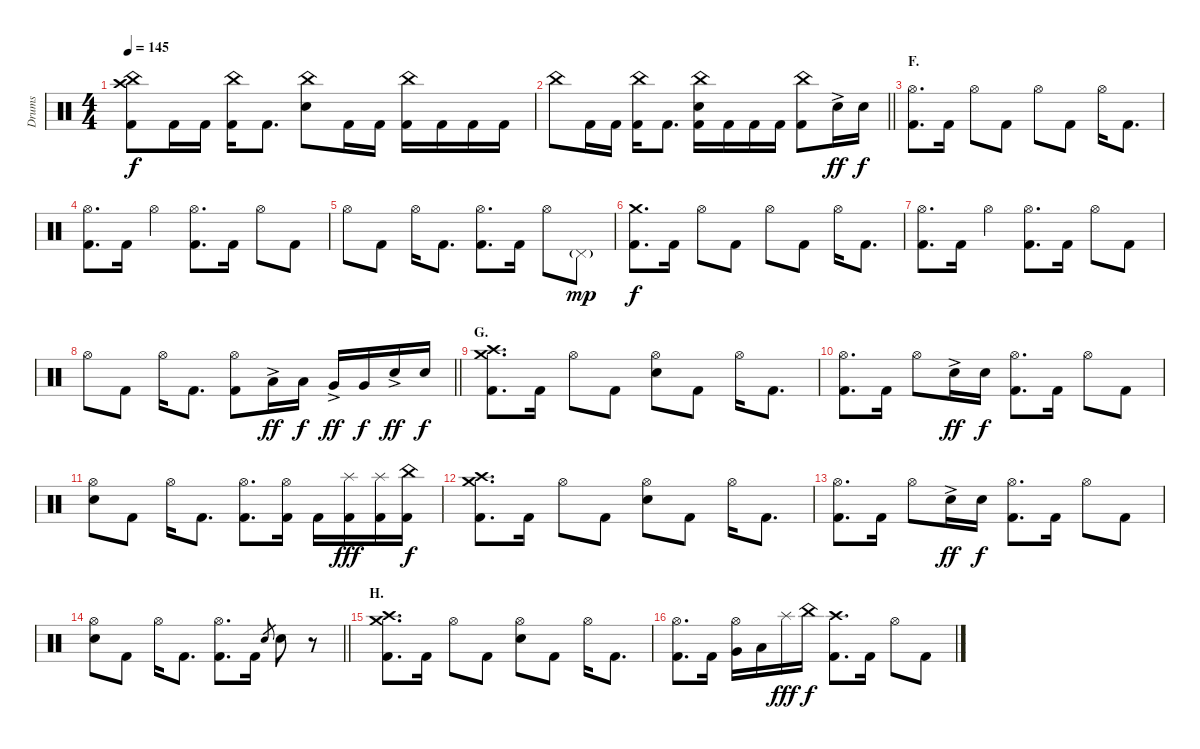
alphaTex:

\track ("Drums" "Drums") {instrument percussion}
\staff {score}
\articulation defaults
\ts (4 4)
\tempo 145
\clef neutral
\ks c
("China (hit)" "Crash high (hit)" "Kick (hit) 2").8{dy f} "Kick (hit) 2".16 "Kick (hit) 2".16 ("China (hit)" "Kick (hit) 2").16 "Kick (hit) 2".8{d} ("China (hit)" "Electric Snare (hit)").8 "Kick (hit) 2".16 "Kick (hit) 2".16 ("China (hit)" "Kick (hit) 2").16 "Kick (hit) 2".16 "Kick (hit) 2".16 "Kick (hit) 2".16 |
\barLineRight lightlight "China (hit)".8 "Kick (hit) 2".16 "Kick (hit) 2".16
("China (hit)" "Kick (hit) 2").16 "Kick (hit) 2".8{d} ("China (hit)" "Electric Snare (hit)" "Kick (hit) 2").16 "Kick (hit) 2".16 "Kick (hit) 2".16 "Kick (hit) 2".16 ("China (hit)" "Kick (hit) 2").8 "Electric Snare (hit)"{ac}.16{dy ff} "Electric Snare (hit)".16{dy f} |
\section ("" "F.")
("Hi-Hat (open)" "Kick (hit) 2").8{d} "Kick (hit) 2".16 "Hi-Hat (open)".8 "Kick (hit) 2".8 "Hi-Hat (open)".8 "Kick (hit) 2".8 "Hi-Hat (open)".16 "Kick (hit) 2".8{d} |
("Hi-Hat (open)" "Kick (hit) 2").8{d} "Kick (hit) 2".16 "Hi-Hat (open)".4 ("Hi-Hat (open)" "Kick (hit) 2").8{d} "Kick (hit) 2".16 "Hi-Hat (open)".8 "Kick (hit) 2".8 |
"Hi-Hat (open)".8 "Kick (hit) 2".8 "Hi-Hat (open)".16 "Kick (hit) 2".8{d} ("Hi-Hat (open)" "Kick (hit) 2").8{d} "Kick (hit) 2".16 "Hi-Hat (open)".8 "Pedal Hi-Hat (hit)"{g}.8{dy mp} |
("Crash medium (hit)" "Kick (hit) 2").8{d dy f} "Kick (hit) 2".16 "Hi-Hat (open)".8 "Kick (hit) 2".8 "Hi-Hat (open)".8 "Kick (hit) 2".8 "Hi-Hat (open)".16 "Kick (hit) 2".8{d} |
("Hi-Hat (open)" "Kick (hit) 2").8{d} "Kick (hit) 2".16 "Hi-Hat (open)".4 ("Hi-Hat (open)" "Kick (hit) 2").8{d} "Kick (hit) 2".16 "Hi-Hat (open)".8 "Kick (hit) 2".8 |
\barLineRight lightlight "Hi-Hat (open)".8 "Kick (hit) 2".8 "Hi-Hat (open)".16 "Kick (hit) 2".8{d}
("Hi-Hat (open)" "Kick (hit) 2").8 "Low Tom (hit)"{ac}.16{dy ff} "Low Tom (hit)".16{dy f} "Very Low Tom (hit)"{ac}.16{dy ff} "Very Low Tom (hit)".16{dy f} "Electric Snare (hit)"{ac}.16{dy ff} "Electric Snare (hit)".16{dy f} |
\section ("" "G.")
("Crash medium (hit)" "Crash high (hit)" "Kick (hit) 2").8{d} "Kick (hit) 2".16 "Hi-Hat (open)".8 "Kick (hit) 2".8 ("Hi-Hat (open)" "Electric Snare (hit)").8 "Kick (hit) 2".8 "Hi-Hat (open)".16 "Kick (hit) 2".8{d} |
("Hi-Hat (open)" "Kick (hit) 2").8{d} "Kick (hit) 2".16 "Hi-Hat (open)".8 "Electric Snare (hit)"{ac}.16{dy ff} "Electric Snare (hit)".16{dy f} ("Hi-Hat (open)" "Kick (hit) 2").8{d} "Kick (hit) 2".16 "Hi-Hat (open)".8 "Kick (hit) 2".8 |
("Hi-Hat (open)" "Electric Snare (hit)").8 "Kick (hit) 2".8 "Hi-Hat (open)".16 "Kick (hit) 2".8{d} ("Hi-Hat (open)" "Kick (hit) 2").8{d} ("Hi-Hat (open)" "Kick (hit) 2").16 "Kick (hit) 2".16 ("Splash (hit)" "Kick (hit) 2").16{dy fff} ("Splash (hit)" "Kick (hit) 2").16 ("China (hit)" "Kick (hit) 2").16{dy f} |
("Crash medium (hit)" "Crash high (hit)" "Kick (hit) 2").8{d} "Kick (hit) 2".16 "Hi-Hat (open)".8 "Kick (hit) 2".8 ("Hi-Hat (open)" "Electric Snare (hit)").8 "Kick (hit) 2".8 "Hi-Hat (open)".16 "Kick (hit) 2".8{d} |
("Hi-Hat (open)" "Kick (hit) 2").8{d} "Kick (hit) 2".16 "Hi-Hat (open)".8 "Electric Snare (hit)"{ac}.16{dy ff} "Electric Snare (hit)".16{dy f} ("Hi-Hat (open)" "Kick (hit) 2").8{d} "Kick (hit) 2".16 "Hi-Hat (open)".8 "Kick (hit) 2".8 |
\barLineRight lightlight
("Hi-Hat (open)" "Electric Snare (hit)").8 "Kick (hit) 2".8 "Hi-Hat (open)".16 "Kick (hit) 2".8{d} ("Hi-Hat (open)" "Kick (hit) 2").8{d} "Kick (hit) 2".16 "Electric Snare (hit)".8{gr} "Electric Snare (hit)".8 r.8 |
\section ("" "H.")
("Crash medium (hit)" "Crash high (hit)" "Kick (hit) 2").8{d} "Kick (hit) 2".16 "Hi-Hat (open)".8 "Kick (hit) 2".8 ("Hi-Hat (open)" "Electric Snare (hit)").8 "Kick (hit) 2".8 "Hi-Hat (open)".16 "Kick (hit) 2".8{d} |
("Hi-Hat (open)" "Kick (hit) 2").8{d} "Kick (hit) 2".16 ("Hi-Hat (open)" "Very Low Tom (hit)").16 "Low Tom (hit)".16 "Splash (hit)".16{dy fff} "China (hit)".16{dy f} ("Crash high (hit)" "Kick (hit) 2").8{d} "Kick (hit) 2".16 "Hi-Hat (open)".8 "Kick (hit) 2".8
